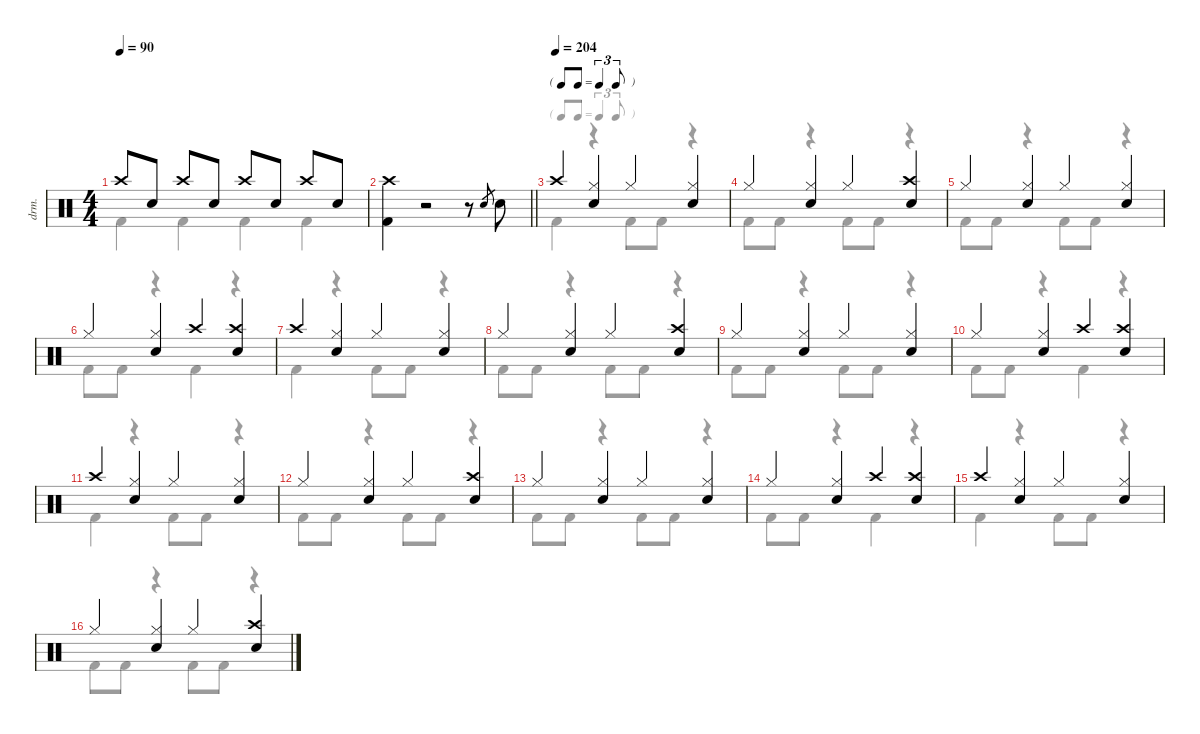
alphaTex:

\defaultSystemsLayout 4
\hideDynamics
\bracketExtendMode nobrackets
\otherSystemsTrackNameOrientation horizontal
\track ("Lars Ulrich" "drm.") {defaultSystemsLayout 8 instrument percussion}
\staff {score}
\articulation defaults
\voice
\ts (4 4)
\beaming (8 2 2 2 2)
\tempo 90
\clef neutral
\ks aminor "Crash high (hit)".8{dy f beam Up} "Snare (hit) 2".8{beam Up} "Crash high (hit)".8{beam Up} "Snare (hit) 2".8{beam Up} "Crash high (hit)".8{beam Up} "Snare (hit) 2".8{beam Up} "Crash high (hit)".8{beam Up} "Snare (hit) 2".8{beam Up}
|
\barLineRight lightlight
("Crash high (hit)" "Kick (hit) 2").4{beam Down} r.2{beam Down} r.8{beam Down} "Snare (hit) 2".8{gr dy mf beam Up} "Snare (hit) 2".8{dy f beam Down} |
\tf triplet8th
\tempo (204)
"Crash high (hit)".4{beam Up} ("Hi-Hat (closed)" "Snare (hit) 2").4{beam Up} "Hi-Hat (closed)".4{beam Up} ("Hi-Hat (closed)" "Snare (hit) 2").4{beam Up} |
"Hi-Hat (closed)".4{beam Up} ("Hi-Hat (closed)" "Snare (hit) 2").4{beam Up} "Hi-Hat (closed)".4{beam Up} ("Crash high (hit)" "Snare (hit) 2").4{beam Up} |
"Hi-Hat (closed)".4{beam Up} ("Hi-Hat (closed)" "Snare (hit) 2").4{beam Up} "Hi-Hat (closed)".4{beam Up} ("Hi-Hat (closed)" "Snare (hit) 2").4{beam Up} |
"Hi-Hat (closed)".4{beam Up} ("Hi-Hat (closed)" "Snare (hit) 2").4{beam Up} "Crash high (hit)".4{beam Up} ("Crash high (hit)" "Snare (hit) 2").4{beam Up} |
"Crash high (hit)".4{beam Up} ("Hi-Hat (closed)" "Snare (hit) 2").4{beam Up} "Hi-Hat (closed)".4{beam Up} ("Hi-Hat (closed)" "Snare (hit) 2").4{beam Up} |
"Hi-Hat (closed)".4{beam Up} ("Hi-Hat (closed)" "Snare (hit) 2").4{beam Up} "Hi-Hat (closed)".4{beam Up} ("Crash high (hit)" "Snare (hit) 2").4{beam Up} |
"Hi-Hat (closed)".4{beam Up} ("Hi-Hat (closed)" "Snare (hit) 2").4{beam Up} "Hi-Hat (closed)".4{beam Up} ("Hi-Hat (closed)" "Snare (hit) 2").4{beam Up} |
"Hi-Hat (closed)".4{beam Up} ("Hi-Hat (closed)" "Snare (hit) 2").4{beam Up} "Crash high (hit)".4{beam Up} ("Crash high (hit)" "Snare (hit) 2").4{beam Up} |
"Crash high (hit)".4{beam Up} ("Hi-Hat (closed)" "Snare (hit) 2").4{beam Up} "Hi-Hat (closed)".4{beam Up} ("Hi-Hat (closed)" "Snare (hit) 2").4{beam Up} |
"Hi-Hat (closed)".4{beam Up} ("Hi-Hat (closed)" "Snare (hit) 2").4{beam Up} "Hi-Hat (closed)".4{beam Up} ("Crash high (hit)" "Snare (hit) 2").4{beam Up} |
"Hi-Hat (closed)".4{beam Up} ("Hi-Hat (closed)" "Snare (hit) 2").4{beam Up} "Hi-Hat (closed)".4{beam Up} ("Hi-Hat (closed)" "Snare (hit) 2").4{beam Up} |
"Hi-Hat (closed)".4{beam Up} ("Hi-Hat (closed)" "Snare (hit) 2").4{beam Up} "Crash high (hit)".4{beam Up} ("Crash high (hit)" "Snare (hit) 2").4{beam Up} |
"Crash high (hit)".4{beam Up} ("Hi-Hat (closed)" "Snare (hit) 2").4{beam Up} "Hi-Hat (closed)".4{beam Up} ("Hi-Hat (closed)" "Snare (hit) 2").4{beam Up} |
"Hi-Hat (closed)".4{beam Up} ("Hi-Hat (closed)" "Snare (hit) 2").4{beam Up} "Hi-Hat (closed)".4{beam Up} ("Crash high (hit)" "Snare (hit) 2").4{beam Up}
\voice
\clef neutral
\ottava regular
\simile none
\ks aminor "Kick (hit) 2".4{dy f beam Down} "Kick (hit) 2".4{beam Down} "Kick (hit) 2".4{beam Down} "Kick (hit) 2".4{beam Down}
|
\barLineRight lightlight
|
"Kick (hit) 2".4{beam Down} r.4{beam Down} "Kick (hit) 2".8{beam Down} "Kick (hit) 2".8{beam Down} r.4{beam Down} |
"Kick (hit) 2".8{beam Down} "Kick (hit) 2".8{beam Down} r.4{beam Down} "Kick (hit) 2".8{beam Down} "Kick (hit) 2".8{beam Down} r.4{beam Down} |
"Kick (hit) 2".8{beam Down} "Kick (hit) 2".8{beam Down} r.4{beam Down} "Kick (hit) 2".8{beam Down} "Kick (hit) 2".8{beam Down} r.4{beam Down} |
"Kick (hit) 2".8{beam Down} "Kick (hit) 2".8{beam Down} r.4{beam Down} "Kick (hit) 2".4{beam Down} r.4{beam Down} |
"Kick (hit) 2".4{beam Down} r.4{beam Down} "Kick (hit) 2".8{beam Down} "Kick (hit) 2".8{beam Down} r.4{beam Down} |
"Kick (hit) 2".8{beam Down} "Kick (hit) 2".8{beam Down} r.4{beam Down} "Kick (hit) 2".8{beam Down} "Kick (hit) 2".8{beam Down} r.4{beam Down} |
"Kick (hit) 2".8{beam Down} "Kick (hit) 2".8{beam Down} r.4{beam Down} "Kick (hit) 2".8{beam Down} "Kick (hit) 2".8{beam Down} r.4{beam Down} |
"Kick (hit) 2".8{beam Down} "Kick (hit) 2".8{beam Down} r.4{beam Down} "Kick (hit) 2".4{beam Down} r.4{beam Down} |
"Kick (hit) 2".4{beam Down} r.4{beam Down} "Kick (hit) 2".8{beam Down} "Kick (hit) 2".8{beam Down} r.4{beam Down} |
"Kick (hit) 2".8{beam Down} "Kick (hit) 2".8{beam Down} r.4{beam Down} "Kick (hit) 2".8{beam Down} "Kick (hit) 2".8{beam Down} r.4{beam Down} |
"Kick (hit) 2".8{beam Down} "Kick (hit) 2".8{beam Down} r.4{beam Down} "Kick (hit) 2".8{beam Down} "Kick (hit) 2".8{beam Down} r.4{beam Down} |
"Kick (hit) 2".8{beam Down} "Kick (hit) 2".8{beam Down} r.4{beam Down} "Kick (hit) 2".4{beam Down} r.4{beam Down} |
"Kick (hit) 2".4{beam Down} r.4{beam Down} "Kick (hit) 2".8{beam Down} "Kick (hit) 2".8{beam Down} r.4{beam Down} |
"Kick (hit) 2".8{beam Down} "Kick (hit) 2".8{beam Down} r.4{beam Down} "Kick (hit) 2".8{beam Down} "Kick (hit) 2".8{beam Down} r.4{beam Down}
